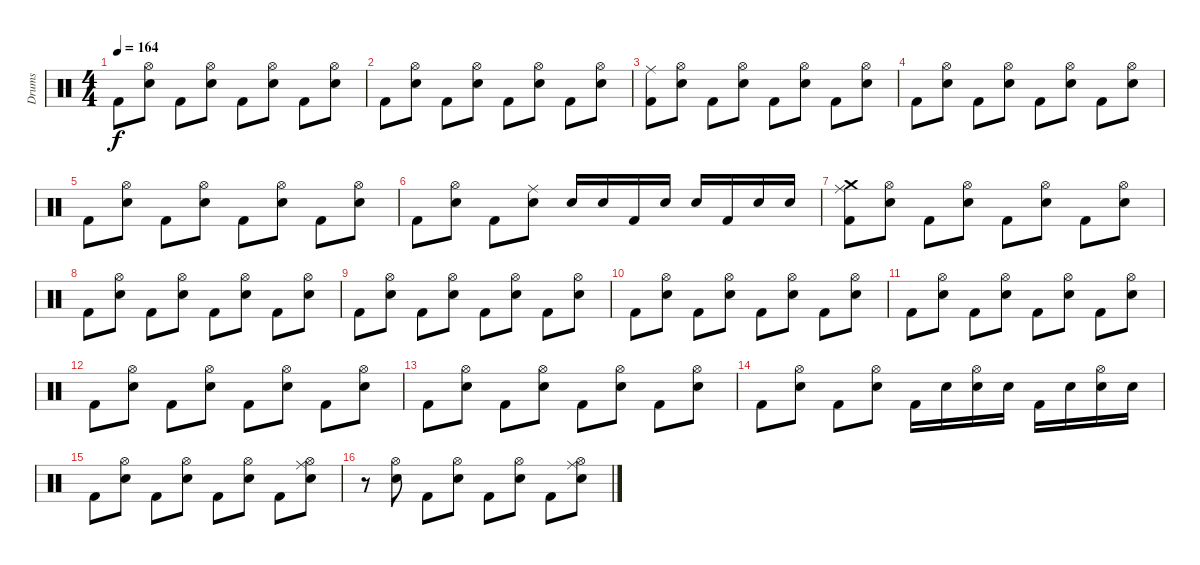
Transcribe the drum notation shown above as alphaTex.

\track ("Drums " "Drums ") {instrument percussion}
\staff {score}
\articulation defaults
\ts (4 4)
\tempo 164
\clef neutral
\ks c "Kick (hit) 2".8{dy f}
("Snare (hit) 2" "Hi-Hat (open)").8 "Kick (hit) 2".8 ("Snare (hit) 2" "Hi-Hat (open)").8 "Kick (hit) 2".8 ("Snare (hit) 2" "Hi-Hat (open)").8 "Kick (hit) 2".8 ("Snare (hit) 2" "Hi-Hat (open)").8 |
"Kick (hit) 2".8 ("Snare (hit) 2" "Hi-Hat (open)").8 "Kick (hit) 2".8 ("Snare (hit) 2" "Hi-Hat (open)").8 "Kick (hit) 2".8 ("Snare (hit) 2" "Hi-Hat (open)").8 "Kick (hit) 2".8 ("Snare (hit) 2" "Hi-Hat (open)").8 |
("Kick (hit) 2" "Ride (middle)").8 ("Snare (hit) 2" "Hi-Hat (open)").8 "Kick (hit) 2".8 ("Snare (hit) 2" "Hi-Hat (open)").8 "Kick (hit) 2".8 ("Snare (hit) 2" "Hi-Hat (open)").8 "Kick (hit) 2".8 ("Snare (hit) 2" "Hi-Hat (open)").8 |
"Kick (hit) 2".8 ("Snare (hit) 2" "Hi-Hat (open)").8 "Kick (hit) 2".8 ("Snare (hit) 2" "Hi-Hat (open)").8 "Kick (hit) 2".8 ("Snare (hit) 2" "Hi-Hat (open)").8 "Kick (hit) 2".8 ("Snare (hit) 2" "Hi-Hat (open)").8 |
"Kick (hit) 2".8 ("Snare (hit) 2" "Hi-Hat (open)").8 "Kick (hit) 2".8 ("Snare (hit) 2" "Hi-Hat (open)").8 "Kick (hit) 2".8 ("Snare (hit) 2" "Hi-Hat (open)").8 "Kick (hit) 2".8 ("Snare (hit) 2" "Hi-Hat (open)").8 |
"Kick (hit) 2".8 ("Snare (hit) 2" "Hi-Hat (open)").8 "Kick (hit) 2".8 ("Snare (hit) 2" "Ride (middle)").8 "Snare (hit) 2".16 "Snare (hit) 2".16 "Kick (hit) 2".16 "Snare (hit) 2".16 "Snare (hit) 2".16 "Kick (hit) 2".16 "Snare (hit) 2".16 "Snare (hit) 2".16 |
("Ride (middle)" "Kick (hit) 2" "Crash medium (hit)").8 ("Snare (hit) 2" "Hi-Hat (open)").8 "Kick (hit) 2".8 ("Snare (hit) 2" "Hi-Hat (open)").8 "Kick (hit) 2".8 ("Snare (hit) 2" "Hi-Hat (open)").8 "Kick (hit) 2".8 ("Snare (hit) 2" "Hi-Hat (open)").8 |
"Kick (hit) 2".8 ("Snare (hit) 2" "Hi-Hat (open)").8 "Kick (hit) 2".8 ("Snare (hit) 2" "Hi-Hat (open)").8 "Kick (hit) 2".8 ("Snare (hit) 2" "Hi-Hat (open)").8 "Kick (hit) 2".8 ("Snare (hit) 2" "Hi-Hat (open)").8 |
"Kick (hit) 2".8 ("Snare (hit) 2" "Hi-Hat (open)").8 "Kick (hit) 2".8 ("Snare (hit) 2" "Hi-Hat (open)").8 "Kick (hit) 2".8 ("Snare (hit) 2" "Hi-Hat (open)").8 "Kick (hit) 2".8 ("Snare (hit) 2" "Hi-Hat (open)").8 |
"Kick (hit) 2".8 ("Snare (hit) 2" "Hi-Hat (open)").8 "Kick (hit) 2".8 ("Snare (hit) 2" "Hi-Hat (open)").8 "Kick (hit) 2".8 ("Snare (hit) 2" "Hi-Hat (open)").8 "Kick (hit) 2".8 ("Snare (hit) 2" "Hi-Hat (open)").8 |
"Kick (hit) 2".8 ("Snare (hit) 2" "Hi-Hat (open)").8 "Kick (hit) 2".8 ("Snare (hit) 2" "Hi-Hat (open)").8 "Kick (hit) 2".8 ("Snare (hit) 2" "Hi-Hat (open)").8 "Kick (hit) 2".8 ("Snare (hit) 2" "Hi-Hat (open)").8 |
"Kick (hit) 2".8 ("Snare (hit) 2" "Hi-Hat (open)").8 "Kick (hit) 2".8 ("Snare (hit) 2" "Hi-Hat (open)").8 "Kick (hit) 2".8 ("Snare (hit) 2" "Hi-Hat (open)").8 "Kick (hit) 2".8 ("Snare (hit) 2" "Hi-Hat (open)").8 |
"Kick (hit) 2".8 ("Snare (hit) 2" "Hi-Hat (open)").8 "Kick (hit) 2".8 ("Snare (hit) 2" "Hi-Hat (open)").8 "Kick (hit) 2".8 ("Snare (hit) 2" "Hi-Hat (open)").8 "Kick (hit) 2".8 ("Snare (hit) 2" "Hi-Hat (open)").8 |
"Kick (hit) 2".8 ("Snare (hit) 2" "Hi-Hat (open)").8 "Kick (hit) 2".8 ("Snare (hit) 2" "Hi-Hat (open)").8 "Kick (hit) 2".16 "Snare (hit) 2".16 ("Snare (hit) 2" "Hi-Hat (open)").16 "Snare (hit) 2".16 "Kick (hit) 2".16 "Snare (hit) 2".16 ("Snare (hit) 2" "Hi-Hat (open)").16 "Snare (hit) 2".16 |
"Kick (hit) 2".8 ("Snare (hit) 2" "Hi-Hat (open)").8 "Kick (hit) 2".8 ("Snare (hit) 2" "Hi-Hat (open)").8 "Kick (hit) 2".8 ("Snare (hit) 2" "Hi-Hat (open)").8 "Kick (hit) 2".8 ("Snare (hit) 2" "Ride (middle)" "Hi-Hat (open)").8 |
r.8 ("Snare (hit) 2" "Hi-Hat (open)").8 "Kick (hit) 2".8 ("Snare (hit) 2" "Hi-Hat (open)").8 "Kick (hit) 2".8 ("Snare (hit) 2" "Hi-Hat (open)").8 "Kick (hit) 2".8 ("Snare (hit) 2" "Ride (middle)" "Hi-Hat (open)").8
